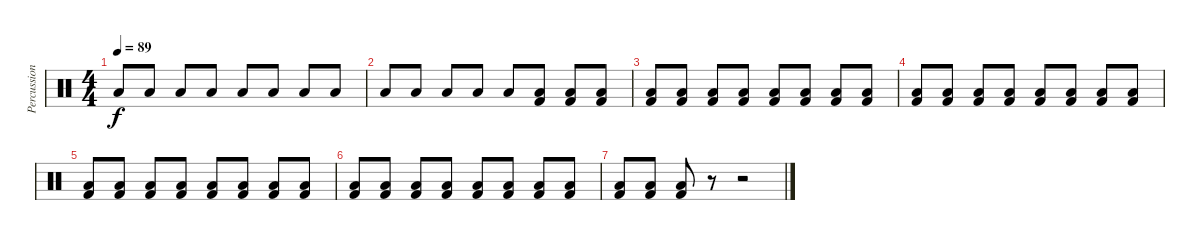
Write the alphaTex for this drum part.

\track ("Percussion" "Percussion") {instrument percussion}
\staff {score}
\articulation defaults
\ts (4 4)
\tempo 89
\clef neutral
\ks c "Low Floor Tom (hit)".8{dy f} "Low Floor Tom (hit)".8 "Low Floor Tom (hit)".8 "Low Floor Tom (hit)".8 "Low Floor Tom (hit)".8 "Low Floor Tom (hit)".8 "Low Floor Tom (hit)".8 "Low Floor Tom (hit)".8
|
"Low Floor Tom (hit)".8 "Low Floor Tom (hit)".8 "Low Floor Tom (hit)".8 "Low Floor Tom (hit)".8 "Low Floor Tom (hit)".8 ("Kick (hit) 2" "Low Floor Tom (hit)").8 ("Kick (hit) 2" "Low Floor Tom (hit)").8 ("Kick (hit) 2" "Low Floor Tom (hit)").8 |
("Kick (hit) 2" "Low Floor Tom (hit)").8 ("Kick (hit) 2" "Low Floor Tom (hit)").8 ("Kick (hit) 2" "Low Floor Tom (hit)").8 ("Kick (hit) 2" "Low Floor Tom (hit)").8 ("Kick (hit) 2" "Low Floor Tom (hit)").8 ("Kick (hit) 2" "Low Floor Tom (hit)").8 ("Kick (hit) 2" "Low Floor Tom (hit)").8 ("Kick (hit) 2" "Low Floor Tom (hit)").8 |
("Kick (hit) 2" "Low Floor Tom (hit)").8 ("Kick (hit) 2" "Low Floor Tom (hit)").8 ("Kick (hit) 2" "Low Floor Tom (hit)").8 ("Kick (hit) 2" "Low Floor Tom (hit)").8 ("Kick (hit) 2" "Low Floor Tom (hit)").8 ("Kick (hit) 2" "Low Floor Tom (hit)").8 ("Kick (hit) 2" "Low Floor Tom (hit)").8 ("Kick (hit) 2" "Low Floor Tom (hit)").8 |
("Kick (hit) 2" "Low Floor Tom (hit)").8 ("Kick (hit) 2" "Low Floor Tom (hit)").8 ("Kick (hit) 2" "Low Floor Tom (hit)").8 ("Kick (hit) 2" "Low Floor Tom (hit)").8 ("Kick (hit) 2" "Low Floor Tom (hit)").8 ("Kick (hit) 2" "Low Floor Tom (hit)").8 ("Kick (hit) 2" "Low Floor Tom (hit)").8 ("Kick (hit) 2" "Low Floor Tom (hit)").8 |
("Kick (hit) 2" "Low Floor Tom (hit)").8 ("Kick (hit) 2" "Low Floor Tom (hit)").8 ("Kick (hit) 2" "Low Floor Tom (hit)").8 ("Kick (hit) 2" "Low Floor Tom (hit)").8 ("Kick (hit) 2" "Low Floor Tom (hit)").8 ("Kick (hit) 2" "Low Floor Tom (hit)").8 ("Kick (hit) 2" "Low Floor Tom (hit)").8 ("Kick (hit) 2" "Low Floor Tom (hit)").8 |
("Kick (hit) 2" "Low Floor Tom (hit)").8 ("Kick (hit) 2" "Low Floor Tom (hit)").8 ("Kick (hit) 2" "Low Floor Tom (hit)").8 r.8 r.2
